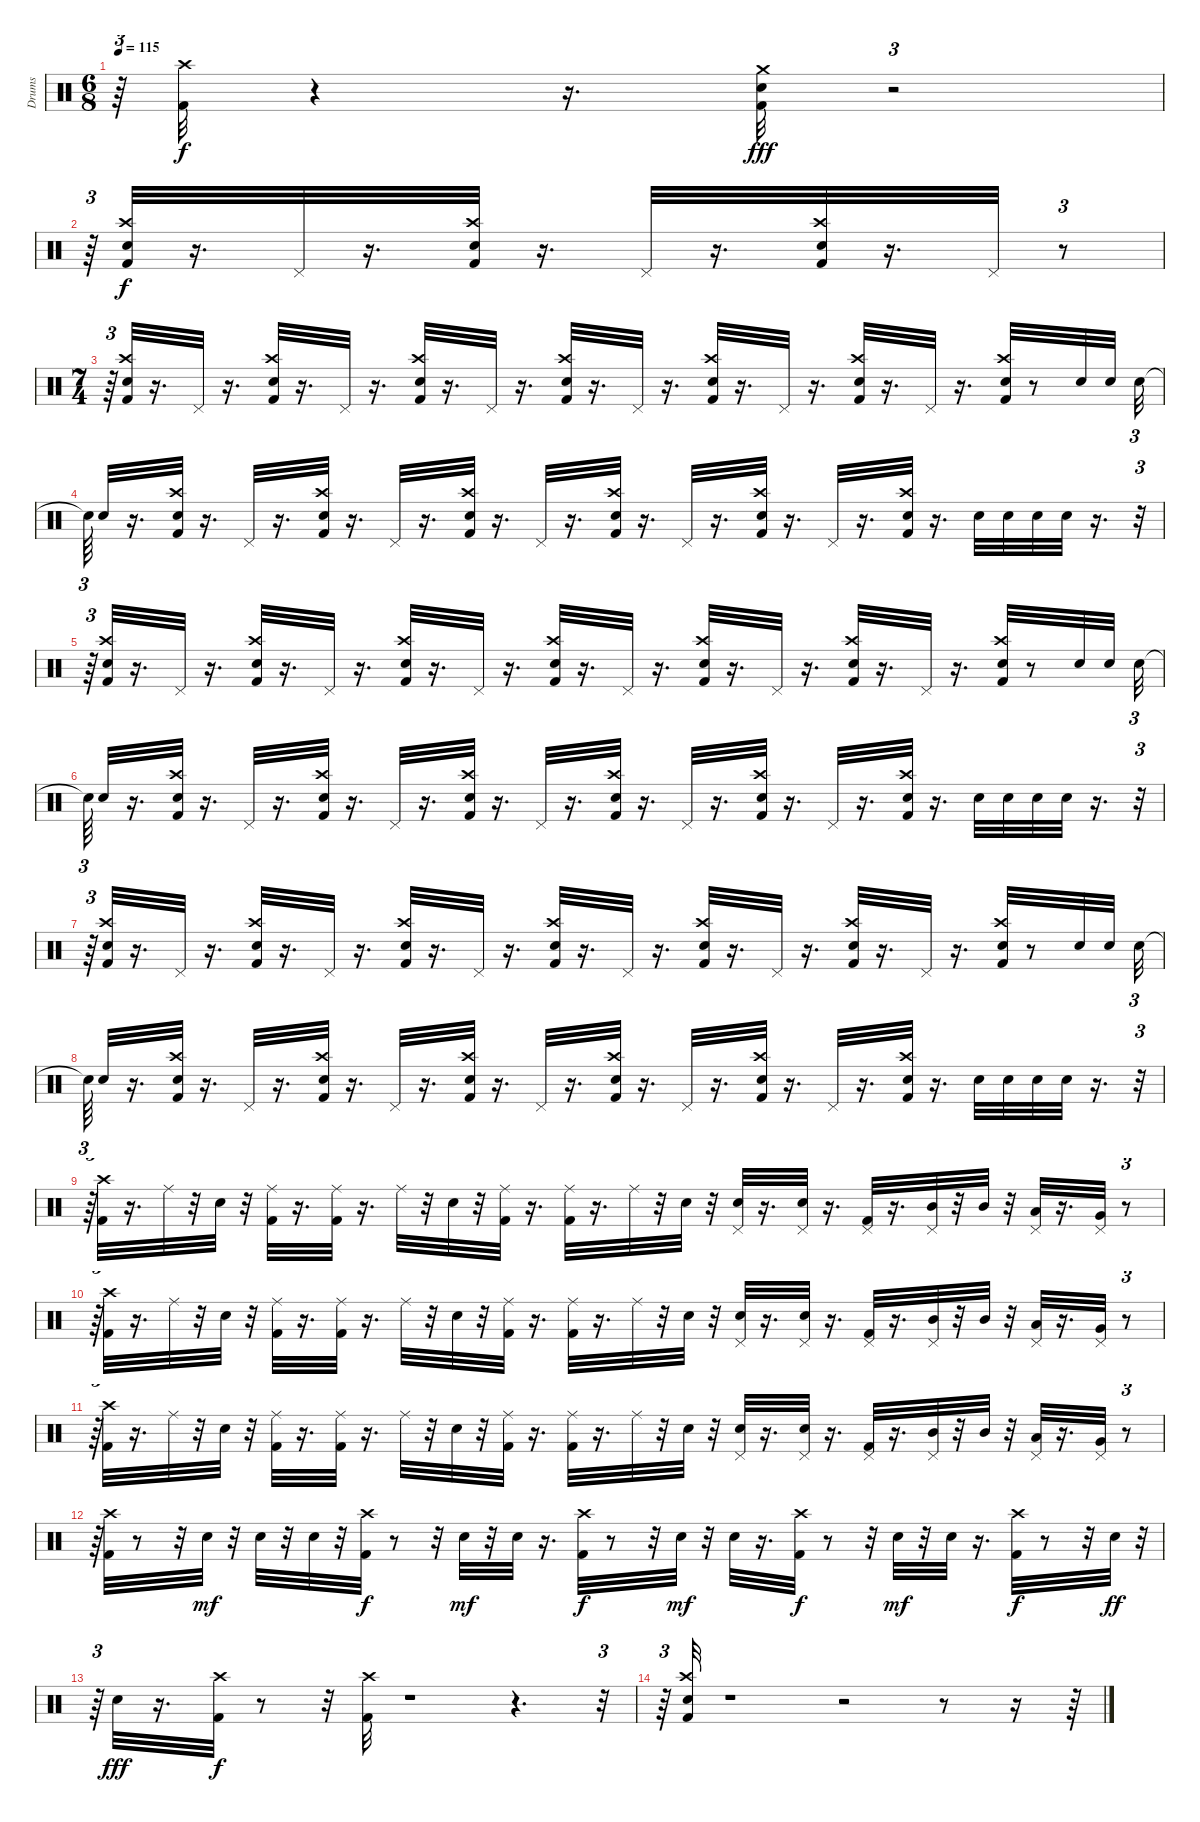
\track ("Drums" "Drums") {instrument percussion}
\staff {score}
\articulation defaults
\ts (6 8)
\tempo 115
\clef neutral
\ks c
r.64{tu (3 2) dy f} ("Kick (hit) 2" "Crash high (hit)").32 r.4 r.16{d} ("Snare (hit) 2" "Kick (hit) 2" "Crash medium (hit)").32{dy fff} r.2{tu (3 2)} |
r.64{tu (3 2)} ("Crash high (hit)" "Snare (hit) 2" "Kick (hit) 2").32{dy f} r.16{d} "Pedal Hi-Hat (hit)".32 r.16{d} ("Crash high (hit)" "Snare (hit) 2" "Kick (hit) 2").32 r.16{d} "Pedal Hi-Hat (hit)".32 r.16{d} ("Crash high (hit)" "Snare (hit) 2" "Kick (hit) 2").32 r.16{d} "Pedal Hi-Hat (hit)".32 r.8{tu (3 2)} |
\ts (7 4)
r.64{tu (3 2)} ("Crash high (hit)" "Snare (hit) 2" "Kick (hit) 2").32 r.16{d} "Pedal Hi-Hat (hit)".32 r.16{d} ("Crash high (hit)" "Snare (hit) 2" "Kick (hit) 2").32 r.16{d} "Pedal Hi-Hat (hit)".32 r.16{d} ("Crash high (hit)" "Snare (hit) 2" "Kick (hit) 2").32 r.16{d} "Pedal Hi-Hat (hit)".32 r.16{d} ("Crash high (hit)" "Snare (hit) 2" "Kick (hit) 2").32 r.16{d} "Pedal Hi-Hat (hit)".32 r.16{d} ("Crash high (hit)" "Snare (hit) 2" "Kick (hit) 2").32 r.16{d} "Pedal Hi-Hat (hit)".32 r.16{d} ("Crash high (hit)" "Snare (hit) 2" "Kick (hit) 2").32 r.16{d} "Pedal Hi-Hat (hit)".32 r.16{d} ("Crash high (hit)" "Snare (hit) 2" "Kick (hit) 2").32 r.8 "Snare (hit) 2".32 "Snare (hit) 2".32{beam splitsecondary} "Snare (hit) 2".32{tu (3 2)} |
"Snare (hit)"{t}.64{tu (3 2)} "Snare (hit) 2".32 r.16{d} ("Snare (hit) 2" "Kick (hit) 2" "Crash high (hit)").32 r.16{d} "Pedal Hi-Hat (hit)".32 r.16{d} ("Snare (hit) 2" "Kick (hit) 2" "Crash high (hit)").32 r.16{d} "Pedal Hi-Hat (hit)".32 r.16{d} ("Snare (hit) 2" "Kick (hit) 2" "Crash high (hit)").32 r.16{d} "Pedal Hi-Hat (hit)".32 r.16{d} ("Snare (hit) 2" "Kick (hit) 2" "Crash high (hit)").32 r.16{d} "Pedal Hi-Hat (hit)".32 r.16{d} ("Snare (hit) 2" "Kick (hit) 2" "Crash high (hit)").32 r.16{d} "Pedal Hi-Hat (hit)".32 r.16{d} ("Snare (hit) 2" "Kick (hit) 2" "Crash high (hit)").32 r.16{d} "Snare (hit) 2".32 "Snare (hit) 2".32 "Snare (hit) 2".32 "Snare (hit) 2".32 r.16{d} r.32{tu (3 2)} |
r.64{tu (3 2)} ("Crash high (hit)" "Snare (hit) 2" "Kick (hit) 2").32 r.16{d} "Pedal Hi-Hat (hit)".32 r.16{d} ("Crash high (hit)" "Snare (hit) 2" "Kick (hit) 2").32 r.16{d} "Pedal Hi-Hat (hit)".32 r.16{d} ("Crash high (hit)" "Snare (hit) 2" "Kick (hit) 2").32 r.16{d} "Pedal Hi-Hat (hit)".32 r.16{d} ("Crash high (hit)" "Snare (hit) 2" "Kick (hit) 2").32 r.16{d} "Pedal Hi-Hat (hit)".32 r.16{d} ("Crash high (hit)" "Snare (hit) 2" "Kick (hit) 2").32 r.16{d} "Pedal Hi-Hat (hit)".32 r.16{d} ("Crash high (hit)" "Snare (hit) 2" "Kick (hit) 2").32 r.16{d} "Pedal Hi-Hat (hit)".32 r.16{d} ("Crash high (hit)" "Snare (hit) 2" "Kick (hit) 2").32 r.8 "Snare (hit) 2".32 "Snare (hit) 2".32{beam splitsecondary} "Snare (hit) 2".32{tu (3 2)} |
"Snare (hit)"{t}.64{tu (3 2)} "Snare (hit) 2".32 r.16{d} ("Snare (hit) 2" "Kick (hit) 2" "Crash high (hit)").32 r.16{d} "Pedal Hi-Hat (hit)".32 r.16{d} ("Snare (hit) 2" "Kick (hit) 2" "Crash high (hit)").32 r.16{d} "Pedal Hi-Hat (hit)".32 r.16{d} ("Snare (hit) 2" "Kick (hit) 2" "Crash high (hit)").32 r.16{d} "Pedal Hi-Hat (hit)".32 r.16{d} ("Snare (hit) 2" "Kick (hit) 2" "Crash high (hit)").32 r.16{d} "Pedal Hi-Hat (hit)".32 r.16{d} ("Snare (hit) 2" "Kick (hit) 2" "Crash high (hit)").32 r.16{d} "Pedal Hi-Hat (hit)".32 r.16{d} ("Snare (hit) 2" "Kick (hit) 2" "Crash high (hit)").32 r.16{d} "Snare (hit) 2".32 "Snare (hit) 2".32 "Snare (hit) 2".32 "Snare (hit) 2".32 r.16{d} r.32{tu (3 2)} |
r.64{tu (3 2)} ("Crash high (hit)" "Snare (hit) 2" "Kick (hit) 2").32 r.16{d} "Pedal Hi-Hat (hit)".32 r.16{d} ("Crash high (hit)" "Snare (hit) 2" "Kick (hit) 2").32 r.16{d} "Pedal Hi-Hat (hit)".32 r.16{d} ("Crash high (hit)" "Snare (hit) 2" "Kick (hit) 2").32 r.16{d} "Pedal Hi-Hat (hit)".32 r.16{d} ("Crash high (hit)" "Snare (hit) 2" "Kick (hit) 2").32 r.16{d} "Pedal Hi-Hat (hit)".32 r.16{d} ("Crash high (hit)" "Snare (hit) 2" "Kick (hit) 2").32 r.16{d} "Pedal Hi-Hat (hit)".32 r.16{d} ("Crash high (hit)" "Snare (hit) 2" "Kick (hit) 2").32 r.16{d} "Pedal Hi-Hat (hit)".32 r.16{d} ("Crash high (hit)" "Snare (hit) 2" "Kick (hit) 2").32 r.8 "Snare (hit) 2".32 "Snare (hit) 2".32{beam splitsecondary} "Snare (hit) 2".32{tu (3 2)} |
"Snare (hit)"{t}.64{tu (3 2)} "Snare (hit) 2".32 r.16{d} ("Snare (hit) 2" "Kick (hit) 2" "Crash high (hit)").32 r.16{d} "Pedal Hi-Hat (hit)".32 r.16{d} ("Snare (hit) 2" "Kick (hit) 2" "Crash high (hit)").32 r.16{d} "Pedal Hi-Hat (hit)".32 r.16{d} ("Snare (hit) 2" "Kick (hit) 2" "Crash high (hit)").32 r.16{d} "Pedal Hi-Hat (hit)".32 r.16{d} ("Snare (hit) 2" "Kick (hit) 2" "Crash high (hit)").32 r.16{d} "Pedal Hi-Hat (hit)".32 r.16{d} ("Snare (hit) 2" "Kick (hit) 2" "Crash high (hit)").32 r.16{d} "Pedal Hi-Hat (hit)".32 r.16{d} ("Snare (hit) 2" "Kick (hit) 2" "Crash high (hit)").32 r.16{d} "Snare (hit) 2".32 "Snare (hit) 2".32 "Snare (hit) 2".32 "Snare (hit) 2".32 r.16{d} r.32{tu (3 2)} |
r.64{tu (3 2)} ("Crash high (hit)" "Kick (hit) 2").32 r.16{d} "Ride (middle)".32 r.32 "Snare (hit) 2".32 r.32 ("Kick (hit) 2" "Ride (middle)").32 r.16{d} ("Kick (hit) 2" "Ride (middle)").32 r.16{d} "Ride (middle)".32 r.32 "Snare (hit) 2".32 r.32 ("Kick (hit) 2" "Ride (middle)").32 r.16{d} ("Kick (hit) 2" "Ride (middle)").32 r.16{d} "Ride (middle)".32 r.32 "Snare (hit) 2".32 r.32 ("Pedal Hi-Hat (hit)" "Snare (hit) 2").32 r.16{d} ("Pedal Hi-Hat (hit)" "Snare (hit) 2").32 r.16{d} ("Pedal Hi-Hat (hit)" "Kick (hit) 2").32 r.16{d} ("Pedal Hi-Hat (hit)" "Mid Tom (hit)").32 r.32 "Mid Tom (hit)".32 r.32 ("Pedal Hi-Hat (hit)" "Low Tom (hit)").32 r.16{d} ("Pedal Hi-Hat (hit)" "Very Low Tom (hit)").32 r.8{tu (3 2)} |
r.64{tu (3 2)} ("Crash high (hit)" "Kick (hit) 2").32 r.16{d} "Ride (middle)".32 r.32 "Snare (hit) 2".32 r.32 ("Kick (hit) 2" "Ride (middle)").32 r.16{d} ("Kick (hit) 2" "Ride (middle)").32 r.16{d} "Ride (middle)".32 r.32 "Snare (hit) 2".32 r.32 ("Kick (hit) 2" "Ride (middle)").32 r.16{d} ("Kick (hit) 2" "Ride (middle)").32 r.16{d} "Ride (middle)".32 r.32 "Snare (hit) 2".32 r.32 ("Snare (hit) 2" "Pedal Hi-Hat (hit)").32 r.16{d} ("Pedal Hi-Hat (hit)" "Snare (hit) 2").32 r.16{d} ("Pedal Hi-Hat (hit)" "Kick (hit) 2").32 r.16{d} ("Mid Tom (hit)" "Pedal Hi-Hat (hit)").32 r.32 "Mid Tom (hit)".32 r.32 ("Low Tom (hit)" "Pedal Hi-Hat (hit)").32 r.16{d} ("Very Low Tom (hit)" "Pedal Hi-Hat (hit)").32 r.8{tu (3 2)} |
r.64{tu (3 2)} ("Crash high (hit)" "Kick (hit) 2").32 r.16{d} "Ride (middle)".32 r.32 "Snare (hit) 2".32 r.32 ("Kick (hit) 2" "Ride (middle)").32 r.16{d} ("Kick (hit) 2" "Ride (middle)").32 r.16{d} "Ride (middle)".32 r.32 "Snare (hit) 2".32 r.32 ("Kick (hit) 2" "Ride (middle)").32 r.16{d} ("Kick (hit) 2" "Ride (middle)").32 r.16{d} "Ride (middle)".32 r.32 "Snare (hit) 2".32 r.32 ("Snare (hit) 2" "Pedal Hi-Hat (hit)").32 r.16{d} ("Snare (hit) 2" "Pedal Hi-Hat (hit)").32 r.16{d} ("Pedal Hi-Hat (hit)" "Kick (hit) 2").32 r.16{d} ("Mid Tom (hit)" "Pedal Hi-Hat (hit)").32 r.32 "Mid Tom (hit)".32 r.32 ("Pedal Hi-Hat (hit)" "Low Tom (hit)").32 r.16{d} ("Very Low Tom (hit)" "Pedal Hi-Hat (hit)").32 r.8{tu (3 2)} |
r.64{tu (3 2)} ("Crash high (hit)" "Kick (hit) 2").32 r.8 r.32 "Snare (hit) 2".32{dy mf} r.32 "Snare (hit) 2".32 r.32 "Snare (hit) 2".32 r.32 ("Crash high (hit)" "Kick (hit) 2").32{dy f} r.8 r.32 "Snare (hit) 2".32{dy mf} r.32 "Snare (hit) 2".32 r.16{d} ("Crash high (hit)" "Kick (hit) 2").32{dy f} r.8 r.32 "Snare (hit) 2".32{dy mf} r.32 "Snare (hit) 2".32 r.16{d} ("Kick (hit) 2" "Crash high (hit)").32{dy f} r.8 r.32 "Snare (hit) 2".32{dy mf} r.32 "Snare (hit) 2".32 r.16{d} ("Kick (hit) 2" "Crash high (hit)").32{dy f} r.8 r.32 "Snare (hit) 2".32{dy ff} r.32{tu (3 2)} |
r.64{tu (3 2)} "Snare (hit) 2".32{dy fff} r.16{d} ("Crash high (hit)" "Kick (hit) 2").32{dy f} r.8 r.32 ("Crash high (hit)" "Kick (hit) 2").32 r.1 r.4{d} r.32{tu (3 2)} |
r.64{tu (3 2)} ("Crash high (hit)" "Snare (hit) 2" "Kick (hit) 2").32 r.1 r.2 r.8 r.16 r.64
